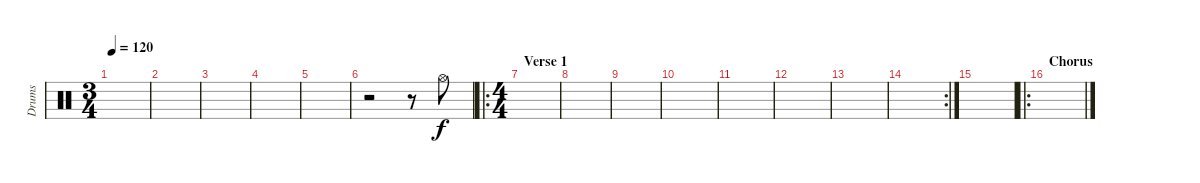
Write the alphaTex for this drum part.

\track ("Drums" "Drums") {instrument percussion}
\staff {score}
\articulation defaults
\ts (3 4)
\tempo 120
\clef neutral
\ks c
|
|
|
|
|
r.2 r.8 "Hi-Hat (open)".8 |
\ro
\ts (4 4)
\section ("" "Verse 1")
|
|
|
|
|
|
|
\rc 2
|
|
\ro
\section ("" "Chorus")
